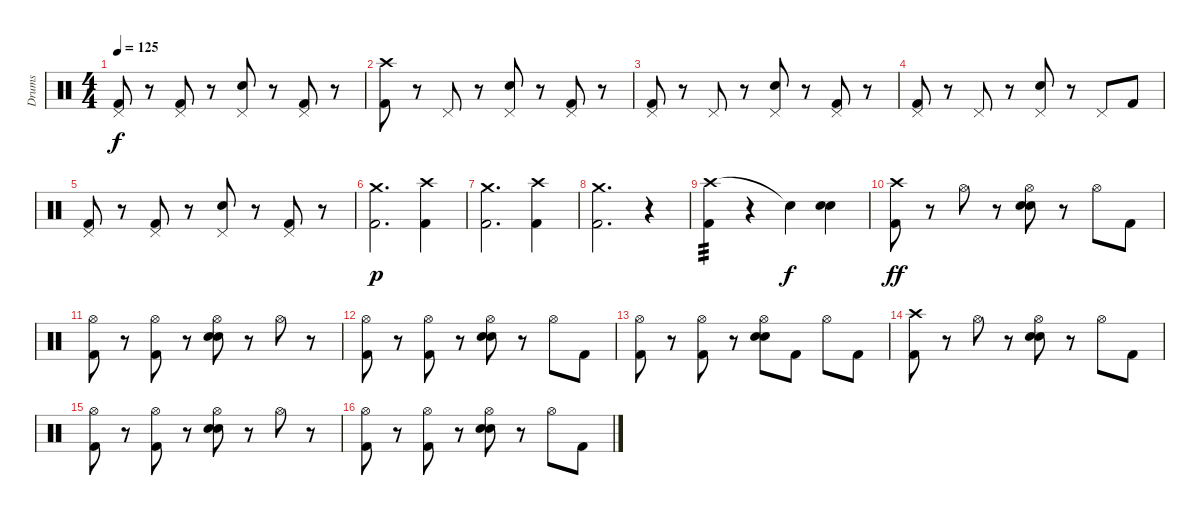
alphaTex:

\track ("Drums" "Drums") {instrument percussion}
\staff {score}
\articulation defaults
\ts (4 4)
\tempo 125
\clef neutral
\ks c
("Pedal Hi-Hat (hit)" "Kick (hit) 2").8{dy f} r.8 ("Pedal Hi-Hat (hit)" "Kick (hit) 2").8 r.8 ("Pedal Hi-Hat (hit)" "Electric Snare (hit)").8 r.8 ("Pedal Hi-Hat (hit)" "Kick (hit) 2").8 r.8 |
("Crash high (hit)" "Kick (hit) 2").8 r.8 "Pedal Hi-Hat (hit)".8 r.8 ("Pedal Hi-Hat (hit)" "Electric Snare (hit)").8 r.8 ("Pedal Hi-Hat (hit)" "Kick (hit) 2").8 r.8 |
("Pedal Hi-Hat (hit)" "Kick (hit) 2").8 r.8 "Pedal Hi-Hat (hit)".8 r.8 ("Pedal Hi-Hat (hit)" "Electric Snare (hit)").8 r.8 ("Pedal Hi-Hat (hit)" "Kick (hit) 2").8 r.8 |
("Pedal Hi-Hat (hit)" "Kick (hit) 2").8 r.8 "Pedal Hi-Hat (hit)".8 r.8 ("Pedal Hi-Hat (hit)" "Electric Snare (hit)").8 r.8 "Pedal Hi-Hat (hit)".8 "Kick (hit) 2".8 |
("Pedal Hi-Hat (hit)" "Kick (hit) 2").8 r.8 ("Pedal Hi-Hat (hit)" "Kick (hit) 2").8 r.8 ("Pedal Hi-Hat (hit)" "Electric Snare (hit)").8 r.8 ("Pedal Hi-Hat (hit)" "Kick (hit) 2").8 r.8 |
("Crash medium (hit)" "Kick (hit) 2").2{d dy p} ("Crash high (hit)" "Kick (hit) 2").4 |
("Crash medium (hit)" "Kick (hit) 2").2{d} ("Crash high (hit)" "Kick (hit) 2").4 |
("Crash medium (hit)" "Kick (hit) 2").2{d} r.4 |
("Crash high (hit)" "Kick (hit) 2").4{tp 3} r.4 "Snare (hit)"{t}.4{dy f} ("Electric Snare (hit)" "Electric Snare (hit)").4{bd 60} |
("Crash high (hit)" "Kick (hit) 2").8{dy ff} r.8 "Hi-Hat (open)".8 r.8 ("Hi-Hat (open)" "Electric Snare (hit)" "Electric Snare (hit)").8 r.8 "Hi-Hat (open)".8 "Kick (hit) 2".8 |
("Hi-Hat (open)" "Kick (hit) 2").8 r.8 ("Hi-Hat (open)" "Kick (hit) 2").8 r.8 ("Hi-Hat (open)" "Electric Snare (hit)" "Electric Snare (hit)").8 r.8 "Hi-Hat (open)".8 r.8 |
("Hi-Hat (open)" "Kick (hit) 2").8 r.8 ("Hi-Hat (open)" "Kick (hit) 2").8 r.8 ("Hi-Hat (open)" "Electric Snare (hit)" "Electric Snare (hit)").8 r.8 "Hi-Hat (open)".8 "Kick (hit) 2".8 |
("Hi-Hat (open)" "Kick (hit) 2").8 r.8 ("Hi-Hat (open)" "Kick (hit) 2").8 r.8 ("Hi-Hat (open)" "Electric Snare (hit)" "Electric Snare (hit)").8 "Kick (hit) 2".8 "Hi-Hat (open)".8 "Kick (hit) 2".8 |
("Crash high (hit)" "Kick (hit) 2").8 r.8 "Hi-Hat (open)".8 r.8 ("Hi-Hat (open)" "Electric Snare (hit)" "Electric Snare (hit)").8 r.8 "Hi-Hat (open)".8 "Kick (hit) 2".8 |
("Hi-Hat (open)" "Kick (hit) 2").8 r.8 ("Hi-Hat (open)" "Kick (hit) 2").8 r.8 ("Hi-Hat (open)" "Electric Snare (hit)" "Electric Snare (hit)").8 r.8 "Hi-Hat (open)".8 r.8 |
("Hi-Hat (open)" "Kick (hit) 2").8 r.8 ("Hi-Hat (open)" "Kick (hit) 2").8 r.8 ("Hi-Hat (open)" "Electric Snare (hit)" "Electric Snare (hit)").8 r.8 "Hi-Hat (open)".8 "Kick (hit) 2".8
